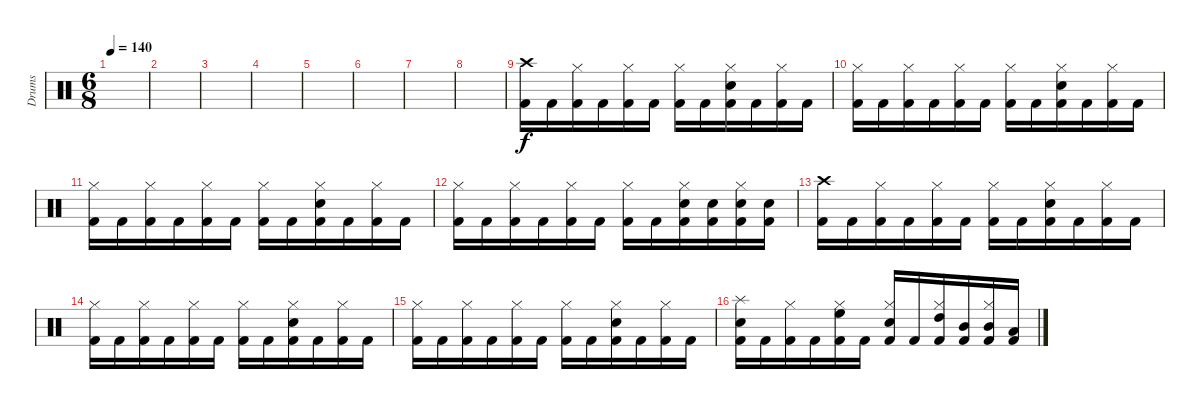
\track ("Drums" "Drums") {instrument percussion}
\staff {score}
\articulation defaults
\ts (6 8)
\tempo 140
\clef neutral
\ks c
|
|
|
|
|
|
|
|
("Kick (hit) 2" "Crash high (hit)").16 "Kick (hit) 2".16 ("Kick (hit) 2" "Hi-Hat (closed)").16 "Kick (hit) 2".16 ("Kick (hit) 2" "Hi-Hat (closed)").16 "Kick (hit) 2".16 ("Kick (hit) 2" "Hi-Hat (closed)").16 "Kick (hit) 2".16 ("Kick (hit) 2" "Hi-Hat (closed)" "Electric Snare (hit)").16 "Kick (hit) 2".16 ("Kick (hit) 2" "Hi-Hat (closed)").16 "Kick (hit) 2".16 |
("Kick (hit) 2" "Hi-Hat (closed)").16 "Kick (hit) 2".16 ("Kick (hit) 2" "Hi-Hat (closed)").16 "Kick (hit) 2".16 ("Kick (hit) 2" "Hi-Hat (closed)").16 "Kick (hit) 2".16 ("Kick (hit) 2" "Hi-Hat (closed)").16 "Kick (hit) 2".16 ("Kick (hit) 2" "Hi-Hat (closed)" "Electric Snare (hit)").16 "Kick (hit) 2".16 ("Kick (hit) 2" "Hi-Hat (closed)").16 "Kick (hit) 2".16 |
("Kick (hit) 2" "Hi-Hat (closed)").16 "Kick (hit) 2".16 ("Kick (hit) 2" "Hi-Hat (closed)").16 "Kick (hit) 2".16 ("Kick (hit) 2" "Hi-Hat (closed)").16 "Kick (hit) 2".16 ("Kick (hit) 2" "Hi-Hat (closed)").16 "Kick (hit) 2".16 ("Kick (hit) 2" "Hi-Hat (closed)" "Electric Snare (hit)").16 "Kick (hit) 2".16 ("Kick (hit) 2" "Hi-Hat (closed)").16 "Kick (hit) 2".16 |
("Kick (hit) 2" "Hi-Hat (closed)").16 "Kick (hit) 2".16 ("Kick (hit) 2" "Hi-Hat (closed)").16 "Kick (hit) 2".16 ("Kick (hit) 2" "Hi-Hat (closed)").16 "Kick (hit) 2".16 ("Kick (hit) 2" "Hi-Hat (closed)").16 "Kick (hit) 2".16 ("Kick (hit) 2" "Hi-Hat (closed)" "Electric Snare (hit)").16 ("Kick (hit) 2" "Electric Snare (hit)").16 ("Kick (hit) 2" "Hi-Hat (closed)" "Electric Snare (hit)").16 ("Kick (hit) 2" "Electric Snare (hit)").16 |
("Kick (hit) 2" "Crash high (hit)").16 "Kick (hit) 2".16 ("Kick (hit) 2" "Hi-Hat (closed)").16 "Kick (hit) 2".16 ("Kick (hit) 2" "Hi-Hat (closed)").16 "Kick (hit) 2".16 ("Kick (hit) 2" "Hi-Hat (closed)").16 "Kick (hit) 2".16 ("Kick (hit) 2" "Hi-Hat (closed)" "Electric Snare (hit)").16 "Kick (hit) 2".16 ("Kick (hit) 2" "Hi-Hat (closed)").16 "Kick (hit) 2".16 |
("Kick (hit) 2" "Hi-Hat (closed)").16 "Kick (hit) 2".16 ("Kick (hit) 2" "Hi-Hat (closed)").16 "Kick (hit) 2".16 ("Kick (hit) 2" "Hi-Hat (closed)").16 "Kick (hit) 2".16 ("Kick (hit) 2" "Hi-Hat (closed)").16 "Kick (hit) 2".16 ("Kick (hit) 2" "Hi-Hat (closed)" "Electric Snare (hit)").16 "Kick (hit) 2".16 ("Kick (hit) 2" "Hi-Hat (closed)").16 "Kick (hit) 2".16 |
("Kick (hit) 2" "Hi-Hat (closed)").16 "Kick (hit) 2".16 ("Kick (hit) 2" "Hi-Hat (closed)").16 "Kick (hit) 2".16 ("Kick (hit) 2" "Hi-Hat (closed)").16 "Kick (hit) 2".16 ("Kick (hit) 2" "Hi-Hat (closed)").16 "Kick (hit) 2".16 ("Kick (hit) 2" "Hi-Hat (closed)" "Electric Snare (hit)").16 "Kick (hit) 2".16 ("Kick (hit) 2" "Hi-Hat (closed)").16 "Kick (hit) 2".16 |
("Kick (hit) 2" "Electric Snare (hit)" "Splash (hit)").16 "Kick (hit) 2".16 ("Kick (hit) 2" "Hi-Hat (closed)").16 "Kick (hit) 2".16 ("Kick (hit) 2" "Hi-Hat (closed)" "High Floor Tom (hit)").16 "Kick (hit) 2".16 ("Kick (hit) 2" "Hi-Hat (closed)" "Electric Snare (hit)").16 "Kick (hit) 2".16 ("Kick (hit) 2" "Hi-Hat (closed)" "High Tom (hit)").16 ("Kick (hit) 2" "Mid Tom (hit)").16 ("Kick (hit) 2" "Hi-Hat (closed)" "Mid Tom (hit)").16 ("Kick (hit) 2" "Low Tom (hit)").16
